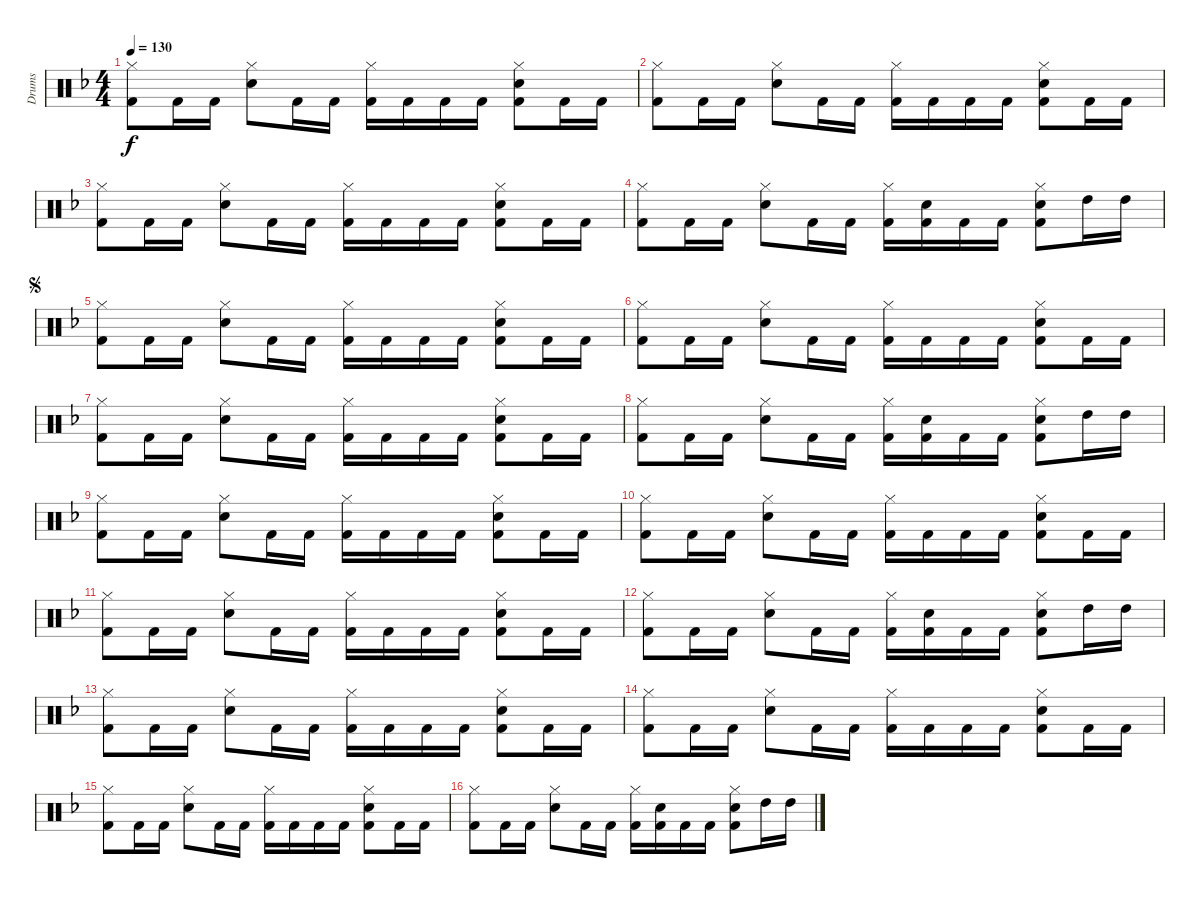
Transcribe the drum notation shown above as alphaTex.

\track ("Drums" "Drums") {instrument percussion}
\staff {score}
\articulation defaults
\ts (4 4)
\tempo 130
\clef neutral
\ks f
("Hi-Hat (closed)" "Kick (hit) 2").8{dy f} "Kick (hit) 2".16 "Kick (hit) 2".16 ("Hi-Hat (closed)" "Electric Snare (hit)").8 "Kick (hit) 2".16 "Kick (hit) 2".16 ("Hi-Hat (closed)" "Kick (hit) 2").16 "Kick (hit) 2".16 "Kick (hit) 2".16 "Kick (hit) 2".16 ("Hi-Hat (closed)" "Electric Snare (hit)" "Kick (hit) 2").8 "Kick (hit) 2".16 "Kick (hit) 2".16 |
("Hi-Hat (closed)" "Kick (hit) 2").8 "Kick (hit) 2".16 "Kick (hit) 2".16 ("Hi-Hat (closed)" "Electric Snare (hit)").8 "Kick (hit) 2".16 "Kick (hit) 2".16 ("Hi-Hat (closed)" "Kick (hit) 2").16 "Kick (hit) 2".16 "Kick (hit) 2".16 "Kick (hit) 2".16 ("Hi-Hat (closed)" "Electric Snare (hit)" "Kick (hit) 2").8 "Kick (hit) 2".16 "Kick (hit) 2".16 |
("Hi-Hat (closed)" "Kick (hit) 2").8 "Kick (hit) 2".16 "Kick (hit) 2".16 ("Hi-Hat (closed)" "Electric Snare (hit)").8 "Kick (hit) 2".16 "Kick (hit) 2".16 ("Hi-Hat (closed)" "Kick (hit) 2").16 "Kick (hit) 2".16 "Kick (hit) 2".16 "Kick (hit) 2".16 ("Hi-Hat (closed)" "Electric Snare (hit)" "Kick (hit) 2").8 "Kick (hit) 2".16 "Kick (hit) 2".16 |
("Hi-Hat (closed)" "Kick (hit) 2").8 "Kick (hit) 2".16 "Kick (hit) 2".16 ("Hi-Hat (closed)" "Electric Snare (hit)").8 "Kick (hit) 2".16 "Kick (hit) 2".16 ("Hi-Hat (closed)" "Kick (hit) 2").16 ("Electric Snare (hit)" "Kick (hit) 2").16 "Kick (hit) 2".16 "Kick (hit) 2".16 ("Hi-Hat (closed)" "Electric Snare (hit)" "Kick (hit) 2").8 "High Tom (hit)".16 "High Tom (hit)".16 |
\jump segno
("Hi-Hat (closed)" "Kick (hit) 2").8 "Kick (hit) 2".16 "Kick (hit) 2".16 ("Hi-Hat (closed)" "Electric Snare (hit)").8 "Kick (hit) 2".16 "Kick (hit) 2".16 ("Hi-Hat (closed)" "Kick (hit) 2").16 "Kick (hit) 2".16 "Kick (hit) 2".16 "Kick (hit) 2".16 ("Hi-Hat (closed)" "Electric Snare (hit)" "Kick (hit) 2").8 "Kick (hit) 2".16 "Kick (hit) 2".16 |
("Hi-Hat (closed)" "Kick (hit) 2").8 "Kick (hit) 2".16 "Kick (hit) 2".16 ("Hi-Hat (closed)" "Electric Snare (hit)").8 "Kick (hit) 2".16 "Kick (hit) 2".16 ("Hi-Hat (closed)" "Kick (hit) 2").16 "Kick (hit) 2".16 "Kick (hit) 2".16 "Kick (hit) 2".16 ("Hi-Hat (closed)" "Electric Snare (hit)" "Kick (hit) 2").8 "Kick (hit) 2".16 "Kick (hit) 2".16 |
("Hi-Hat (closed)" "Kick (hit) 2").8 "Kick (hit) 2".16 "Kick (hit) 2".16 ("Hi-Hat (closed)" "Electric Snare (hit)").8 "Kick (hit) 2".16 "Kick (hit) 2".16 ("Hi-Hat (closed)" "Kick (hit) 2").16 "Kick (hit) 2".16 "Kick (hit) 2".16 "Kick (hit) 2".16 ("Hi-Hat (closed)" "Electric Snare (hit)" "Kick (hit) 2").8 "Kick (hit) 2".16 "Kick (hit) 2".16 |
("Hi-Hat (closed)" "Kick (hit) 2").8 "Kick (hit) 2".16 "Kick (hit) 2".16 ("Hi-Hat (closed)" "Electric Snare (hit)").8 "Kick (hit) 2".16 "Kick (hit) 2".16 ("Hi-Hat (closed)" "Kick (hit) 2").16 ("Electric Snare (hit)" "Kick (hit) 2").16 "Kick (hit) 2".16 "Kick (hit) 2".16 ("Hi-Hat (closed)" "Electric Snare (hit)" "Kick (hit) 2").8 "High Tom (hit)".16 "High Tom (hit)".16 |
("Hi-Hat (closed)" "Kick (hit) 2").8 "Kick (hit) 2".16 "Kick (hit) 2".16 ("Hi-Hat (closed)" "Electric Snare (hit)").8 "Kick (hit) 2".16 "Kick (hit) 2".16 ("Hi-Hat (closed)" "Kick (hit) 2").16 "Kick (hit) 2".16 "Kick (hit) 2".16 "Kick (hit) 2".16 ("Hi-Hat (closed)" "Electric Snare (hit)" "Kick (hit) 2").8 "Kick (hit) 2".16 "Kick (hit) 2".16 |
("Hi-Hat (closed)" "Kick (hit) 2").8 "Kick (hit) 2".16 "Kick (hit) 2".16 ("Hi-Hat (closed)" "Electric Snare (hit)").8 "Kick (hit) 2".16 "Kick (hit) 2".16 ("Hi-Hat (closed)" "Kick (hit) 2").16 "Kick (hit) 2".16 "Kick (hit) 2".16 "Kick (hit) 2".16 ("Hi-Hat (closed)" "Electric Snare (hit)" "Kick (hit) 2").8 "Kick (hit) 2".16 "Kick (hit) 2".16 |
("Hi-Hat (closed)" "Kick (hit) 2").8 "Kick (hit) 2".16 "Kick (hit) 2".16 ("Hi-Hat (closed)" "Electric Snare (hit)").8 "Kick (hit) 2".16 "Kick (hit) 2".16 ("Hi-Hat (closed)" "Kick (hit) 2").16 "Kick (hit) 2".16 "Kick (hit) 2".16 "Kick (hit) 2".16 ("Hi-Hat (closed)" "Electric Snare (hit)" "Kick (hit) 2").8 "Kick (hit) 2".16 "Kick (hit) 2".16 |
("Hi-Hat (closed)" "Kick (hit) 2").8 "Kick (hit) 2".16 "Kick (hit) 2".16 ("Hi-Hat (closed)" "Electric Snare (hit)").8 "Kick (hit) 2".16 "Kick (hit) 2".16 ("Hi-Hat (closed)" "Kick (hit) 2").16 ("Electric Snare (hit)" "Kick (hit) 2").16 "Kick (hit) 2".16 "Kick (hit) 2".16 ("Hi-Hat (closed)" "Electric Snare (hit)" "Kick (hit) 2").8 "High Tom (hit)".16 "High Tom (hit)".16 |
("Hi-Hat (closed)" "Kick (hit) 2").8 "Kick (hit) 2".16 "Kick (hit) 2".16 ("Hi-Hat (closed)" "Electric Snare (hit)").8 "Kick (hit) 2".16 "Kick (hit) 2".16 ("Hi-Hat (closed)" "Kick (hit) 2").16 "Kick (hit) 2".16 "Kick (hit) 2".16 "Kick (hit) 2".16 ("Hi-Hat (closed)" "Electric Snare (hit)" "Kick (hit) 2").8 "Kick (hit) 2".16 "Kick (hit) 2".16 |
("Hi-Hat (closed)" "Kick (hit) 2").8 "Kick (hit) 2".16 "Kick (hit) 2".16 ("Hi-Hat (closed)" "Electric Snare (hit)").8 "Kick (hit) 2".16 "Kick (hit) 2".16 ("Hi-Hat (closed)" "Kick (hit) 2").16 "Kick (hit) 2".16 "Kick (hit) 2".16 "Kick (hit) 2".16 ("Hi-Hat (closed)" "Electric Snare (hit)" "Kick (hit) 2").8 "Kick (hit) 2".16 "Kick (hit) 2".16 |
("Hi-Hat (closed)" "Kick (hit) 2").8 "Kick (hit) 2".16 "Kick (hit) 2".16 ("Hi-Hat (closed)" "Electric Snare (hit)").8 "Kick (hit) 2".16 "Kick (hit) 2".16 ("Hi-Hat (closed)" "Kick (hit) 2").16 "Kick (hit) 2".16 "Kick (hit) 2".16 "Kick (hit) 2".16 ("Hi-Hat (closed)" "Electric Snare (hit)" "Kick (hit) 2").8 "Kick (hit) 2".16 "Kick (hit) 2".16 |
("Hi-Hat (closed)" "Kick (hit) 2").8 "Kick (hit) 2".16 "Kick (hit) 2".16 ("Hi-Hat (closed)" "Electric Snare (hit)").8 "Kick (hit) 2".16 "Kick (hit) 2".16 ("Hi-Hat (closed)" "Kick (hit) 2").16 ("Electric Snare (hit)" "Kick (hit) 2").16 "Kick (hit) 2".16 "Kick (hit) 2".16 ("Hi-Hat (closed)" "Electric Snare (hit)" "Kick (hit) 2").8 "High Tom (hit)".16 "High Tom (hit)".16
